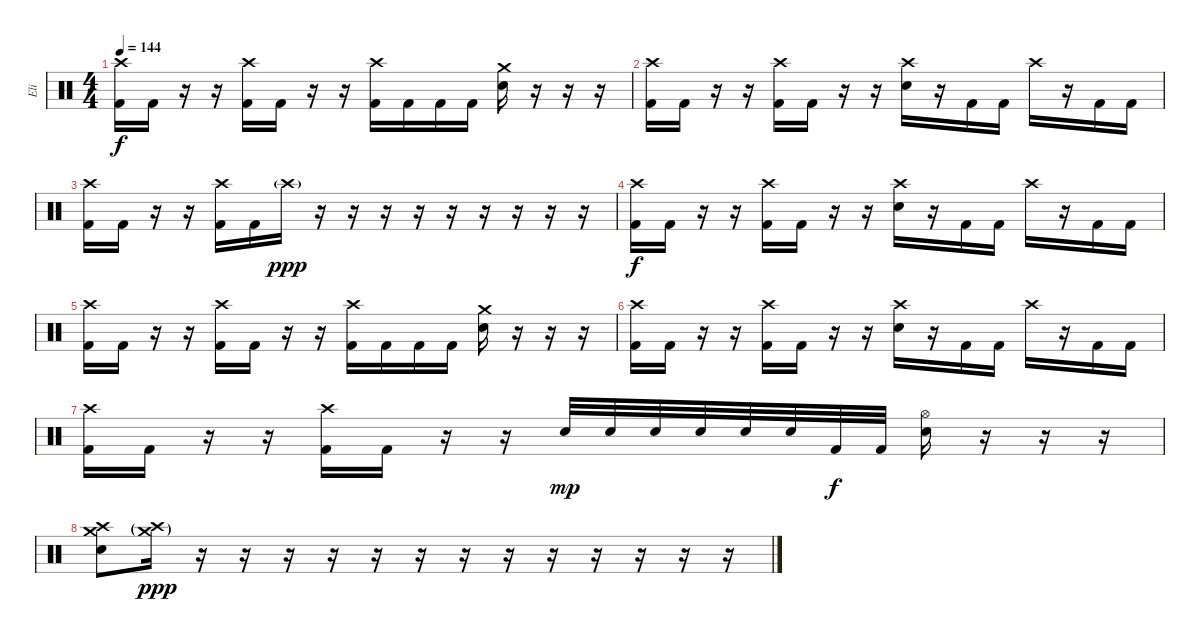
\track ("Eli" "Eli") {instrument percussion}
\staff {score}
\articulation defaults
\ts (4 4)
\tempo 144
\clef neutral
\ks c
("Crash high (hit)" "Kick (hit) 2").16{dy f} "Kick (hit) 2".16 r.16 r.16 ("Crash high (hit)" "Kick (hit) 2").16 "Kick (hit) 2".16 r.16 r.16 ("Crash high (hit)" "Kick (hit) 2").16 "Kick (hit) 2".16 "Kick (hit) 2".16 "Kick (hit) 2".16 ("Crash medium (hit)" "Snare (hit) 2").16 r.16 r.16 r.16 |
("Crash high (hit)" "Kick (hit) 2").16 "Kick (hit) 2".16 r.16 r.16 ("Crash high (hit)" "Kick (hit) 2").16 "Kick (hit) 2".16 r.16 r.16 ("Crash high (hit)" "Snare (hit) 2").16 r.16 "Kick (hit) 2".16 "Kick (hit) 2".16 "Crash high (hit)".16 r.16 "Kick (hit) 2".16 "Kick (hit) 2".16 |
("Crash high (hit)" "Kick (hit) 2").16 "Kick (hit) 2".16 r.16 r.16 ("Crash high (hit)" "Kick (hit) 2").16 "Kick (hit) 2".16 "Crash high (hit)"{g}.16{dy ppp} r.16 r.16 r.16 r.16 r.16 r.16 r.16 r.16 r.16 |
("Crash high (hit)" "Kick (hit) 2").16{dy f} "Kick (hit) 2".16 r.16 r.16 ("Crash high (hit)" "Kick (hit) 2").16 "Kick (hit) 2".16 r.16 r.16 ("Crash high (hit)" "Snare (hit) 2").16 r.16 "Kick (hit) 2".16 "Kick (hit) 2".16 "Crash high (hit)".16 r.16 "Kick (hit) 2".16 "Kick (hit) 2".16 |
("Crash high (hit)" "Kick (hit) 2").16 "Kick (hit) 2".16 r.16 r.16 ("Crash high (hit)" "Kick (hit) 2").16 "Kick (hit) 2".16 r.16 r.16 ("Crash high (hit)" "Kick (hit) 2").16 "Kick (hit) 2".16 "Kick (hit) 2".16 "Kick (hit) 2".16 ("Crash medium (hit)" "Snare (hit) 2").16 r.16 r.16 r.16 |
("Crash high (hit)" "Kick (hit) 2").16 "Kick (hit) 2".16 r.16 r.16 ("Crash high (hit)" "Kick (hit) 2").16 "Kick (hit) 2".16 r.16 r.16 ("Crash high (hit)" "Snare (hit) 2").16 r.16 "Kick (hit) 2".16 "Kick (hit) 2".16 "Crash high (hit)".16 r.16 "Kick (hit) 2".16 "Kick (hit) 2".16 |
("Crash high (hit)" "Kick (hit) 2").16 "Kick (hit) 2".16 r.16 r.16 ("Crash high (hit)" "Kick (hit) 2").16 "Kick (hit) 2".16 r.16 r.16 "Snare (hit) 2".32{dy mp} "Snare (hit) 2".32 "Snare (hit) 2".32 "Snare (hit) 2".32 "Snare (hit) 2".32 "Snare (hit) 2".32 "Kick (hit) 2".32{dy f} "Kick (hit) 2".32 ("Hi-Hat (open)" "Snare (hit) 2").16 r.16 r.16 r.16 |
("Crash high (hit)" "Crash medium (hit)" "Snare (hit) 2").8 ("Crash high (hit)"{g} "Crash medium (hit)"{g}).16{dy ppp} r.16{volume 0} r.16 r.16 r.16 r.16 r.16 r.16 r.16 r.16 r.16 r.16 r.16 r.16
